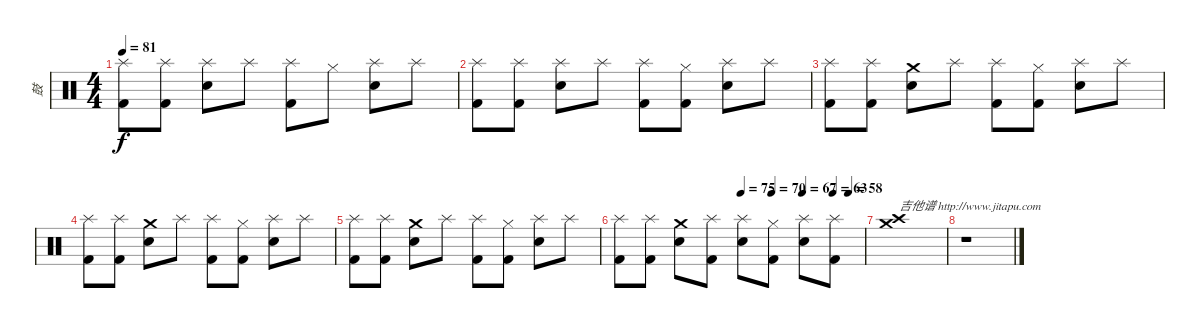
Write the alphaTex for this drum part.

\track ("鼓" "鼓") {instrument percussion}
\staff {score}
\articulation defaults
\ts (4 4)
\tempo 81
\clef neutral
\ks c
("Splash (hit)" "Kick (hit) 2").8{dy f} ("Splash (hit)" "Kick (hit) 2").8 ("Splash (hit)" "Snare (hit) 2").8 "Splash (hit)".8 ("Splash (hit)" "Kick (hit) 2").8 "Hi-Hat (closed)".8 ("Splash (hit)" "Snare (hit) 2").8 "Splash (hit)".8 |
("Splash (hit)" "Kick (hit) 2").8 ("Splash (hit)" "Kick (hit) 2").8 ("Splash (hit)" "Snare (hit) 2").8 "Splash (hit)".8 ("Splash (hit)" "Kick (hit) 2").8 ("Hi-Hat (closed)" "Kick (hit) 2").8 ("Splash (hit)" "Snare (hit) 2").8 "Splash (hit)".8 |
("Splash (hit)" "Kick (hit) 2").8 ("Splash (hit)" "Kick (hit) 2").8 ("Crash medium (hit)" "Snare (hit) 2").8 "Splash (hit)".8 ("Splash (hit)" "Kick (hit) 2").8 ("Hi-Hat (closed)" "Kick (hit) 2").8 ("Splash (hit)" "Snare (hit) 2").8 "Splash (hit)".8 |
("Splash (hit)" "Kick (hit) 2").8 ("Splash (hit)" "Kick (hit) 2").8 ("Crash medium (hit)" "Snare (hit) 2").8 "Splash (hit)".8 ("Splash (hit)" "Kick (hit) 2").8 ("Hi-Hat (closed)" "Kick (hit) 2").8 ("Splash (hit)" "Snare (hit) 2").8 "Splash (hit)".8 |
("Splash (hit)" "Kick (hit) 2").8 ("Splash (hit)" "Kick (hit) 2").8 ("Crash medium (hit)" "Snare (hit) 2").8 "Splash (hit)".8 ("Splash (hit)" "Kick (hit) 2").8 ("Hi-Hat (closed)" "Kick (hit) 2").8 ("Splash (hit)" "Snare (hit) 2").8 "Splash (hit)".8 |
\tempo (75 0.5)
\tempo (70 0.625)
\tempo (67 0.75)
\tempo (63 0.875)
\tempo (58 0.9375)
("Splash (hit)" "Kick (hit) 2").8 ("Splash (hit)" "Kick (hit) 2").8 ("Crash medium (hit)" "Snare (hit) 2").8 ("Splash (hit)" "Kick (hit) 2").8 ("Splash (hit)" "Snare (hit) 2").8 ("Hi-Hat (closed)" "Kick (hit) 2").8 ("Splash (hit)" "Snare (hit) 2").8 ("Splash (hit)" "Kick (hit) 2").8 |
("Crash high (hit)" "Crash medium (hit)").1{txt "吉他谱 http://www.jitapu.com"} |
r.1
